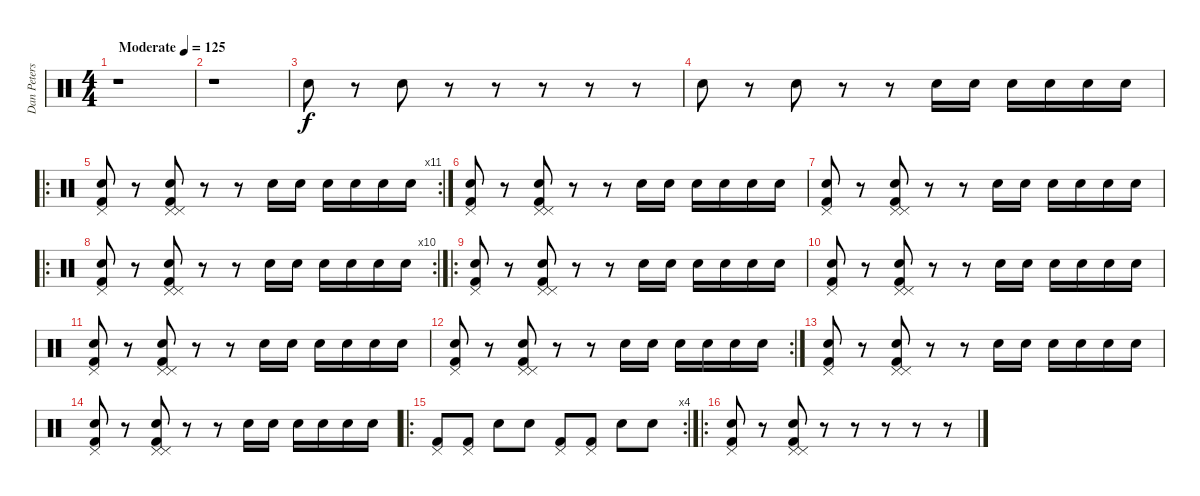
\track ("Dan Peters - Drums" "Dan Peters") {instrument percussion}
\staff {score}
\articulation defaults
\ts (4 4)
\tempo (125 "Moderate")
\clef neutral
\ks c
r.1{dy f} |
r.1 |
"Electric Snare (hit)".8 r.8 "Electric Snare (hit)".8 r.8 r.8 r.8 r.8 r.8 |
"Electric Snare (hit)".8 r.8 "Electric Snare (hit)".8 r.8 r.8 "Electric Snare (hit)".16 "Electric Snare (hit)".16 "Electric Snare (hit)".16 "Electric Snare (hit)".16 "Electric Snare (hit)".16 "Electric Snare (hit)".16 |
\ro
\rc 11
("Electric Snare (hit)" "Kick (hit) 2" "Pedal Hi-Hat (hit)").8 r.8 ("Electric Snare (hit)" "Kick (hit) 2" "Pedal Hi-Hat (hit)" "Pedal Hi-Hat (hit)").8 r.8 r.8 "Electric Snare (hit)".16 "Electric Snare (hit)".16 "Electric Snare (hit)".16 "Electric Snare (hit)".16 "Electric Snare (hit)".16 "Electric Snare (hit)".16 |
("Electric Snare (hit)" "Kick (hit) 2" "Pedal Hi-Hat (hit)").8 r.8 ("Electric Snare (hit)" "Kick (hit) 2" "Pedal Hi-Hat (hit)" "Pedal Hi-Hat (hit)").8 r.8 r.8 "Electric Snare (hit)".16 "Electric Snare (hit)".16 "Electric Snare (hit)".16 "Electric Snare (hit)".16 "Electric Snare (hit)".16 "Electric Snare (hit)".16 |
("Electric Snare (hit)" "Kick (hit) 2" "Pedal Hi-Hat (hit)").8 r.8 ("Electric Snare (hit)" "Kick (hit) 2" "Pedal Hi-Hat (hit)" "Pedal Hi-Hat (hit)").8 r.8 r.8 "Electric Snare (hit)".16 "Electric Snare (hit)".16 "Electric Snare (hit)".16 "Electric Snare (hit)".16 "Electric Snare (hit)".16 "Electric Snare (hit)".16 |
\ro
\rc 10
("Electric Snare (hit)" "Kick (hit) 2" "Pedal Hi-Hat (hit)").8 r.8 ("Electric Snare (hit)" "Kick (hit) 2" "Pedal Hi-Hat (hit)" "Pedal Hi-Hat (hit)").8 r.8 r.8 "Electric Snare (hit)".16 "Electric Snare (hit)".16 "Electric Snare (hit)".16 "Electric Snare (hit)".16 "Electric Snare (hit)".16 "Electric Snare (hit)".16 |
\ro
("Electric Snare (hit)" "Kick (hit) 2" "Pedal Hi-Hat (hit)").8 r.8 ("Electric Snare (hit)" "Kick (hit) 2" "Pedal Hi-Hat (hit)" "Pedal Hi-Hat (hit)").8 r.8 r.8 "Electric Snare (hit)".16 "Electric Snare (hit)".16 "Electric Snare (hit)".16 "Electric Snare (hit)".16 "Electric Snare (hit)".16 "Electric Snare (hit)".16 |
("Electric Snare (hit)" "Kick (hit) 2" "Pedal Hi-Hat (hit)").8 r.8 ("Electric Snare (hit)" "Kick (hit) 2" "Pedal Hi-Hat (hit)" "Pedal Hi-Hat (hit)").8 r.8 r.8 "Electric Snare (hit)".16 "Electric Snare (hit)".16 "Electric Snare (hit)".16 "Electric Snare (hit)".16 "Electric Snare (hit)".16 "Electric Snare (hit)".16 |
("Electric Snare (hit)" "Kick (hit) 2" "Pedal Hi-Hat (hit)").8 r.8 ("Electric Snare (hit)" "Kick (hit) 2" "Pedal Hi-Hat (hit)" "Pedal Hi-Hat (hit)").8 r.8 r.8 "Electric Snare (hit)".16 "Electric Snare (hit)".16 "Electric Snare (hit)".16 "Electric Snare (hit)".16 "Electric Snare (hit)".16 "Electric Snare (hit)".16 |
\rc 2
("Electric Snare (hit)" "Kick (hit) 2" "Pedal Hi-Hat (hit)").8 r.8 ("Electric Snare (hit)" "Kick (hit) 2" "Pedal Hi-Hat (hit)" "Pedal Hi-Hat (hit)").8 r.8 r.8 "Electric Snare (hit)".16 "Electric Snare (hit)".16 "Electric Snare (hit)".16 "Electric Snare (hit)".16 "Electric Snare (hit)".16 "Electric Snare (hit)".16 |
("Electric Snare (hit)" "Kick (hit) 2" "Pedal Hi-Hat (hit)").8 r.8 ("Electric Snare (hit)" "Kick (hit) 2" "Pedal Hi-Hat (hit)" "Pedal Hi-Hat (hit)").8 r.8 r.8 "Electric Snare (hit)".16 "Electric Snare (hit)".16 "Electric Snare (hit)".16 "Electric Snare (hit)".16 "Electric Snare (hit)".16 "Electric Snare (hit)".16 |
("Electric Snare (hit)" "Kick (hit) 2" "Pedal Hi-Hat (hit)").8 r.8 ("Electric Snare (hit)" "Kick (hit) 2" "Pedal Hi-Hat (hit)" "Pedal Hi-Hat (hit)").8 r.8 r.8 "Electric Snare (hit)".16 "Electric Snare (hit)".16 "Electric Snare (hit)".16 "Electric Snare (hit)".16 "Electric Snare (hit)".16 "Electric Snare (hit)".16 |
\ro
\rc 4
("Kick (hit) 2" "Pedal Hi-Hat (hit)").8 ("Kick (hit) 2" "Pedal Hi-Hat (hit)").8 "Electric Snare (hit)".8 "Electric Snare (hit)".8 ("Kick (hit) 2" "Pedal Hi-Hat (hit)").8 ("Kick (hit) 2" "Pedal Hi-Hat (hit)").8 "Electric Snare (hit)".8 "Electric Snare (hit)".8 |
\ro
("Electric Snare (hit)" "Kick (hit) 2" "Pedal Hi-Hat (hit)").8 r.8 ("Electric Snare (hit)" "Kick (hit) 2" "Pedal Hi-Hat (hit)" "Pedal Hi-Hat (hit)").8 r.8 r.8 r.8 r.8 r.8
